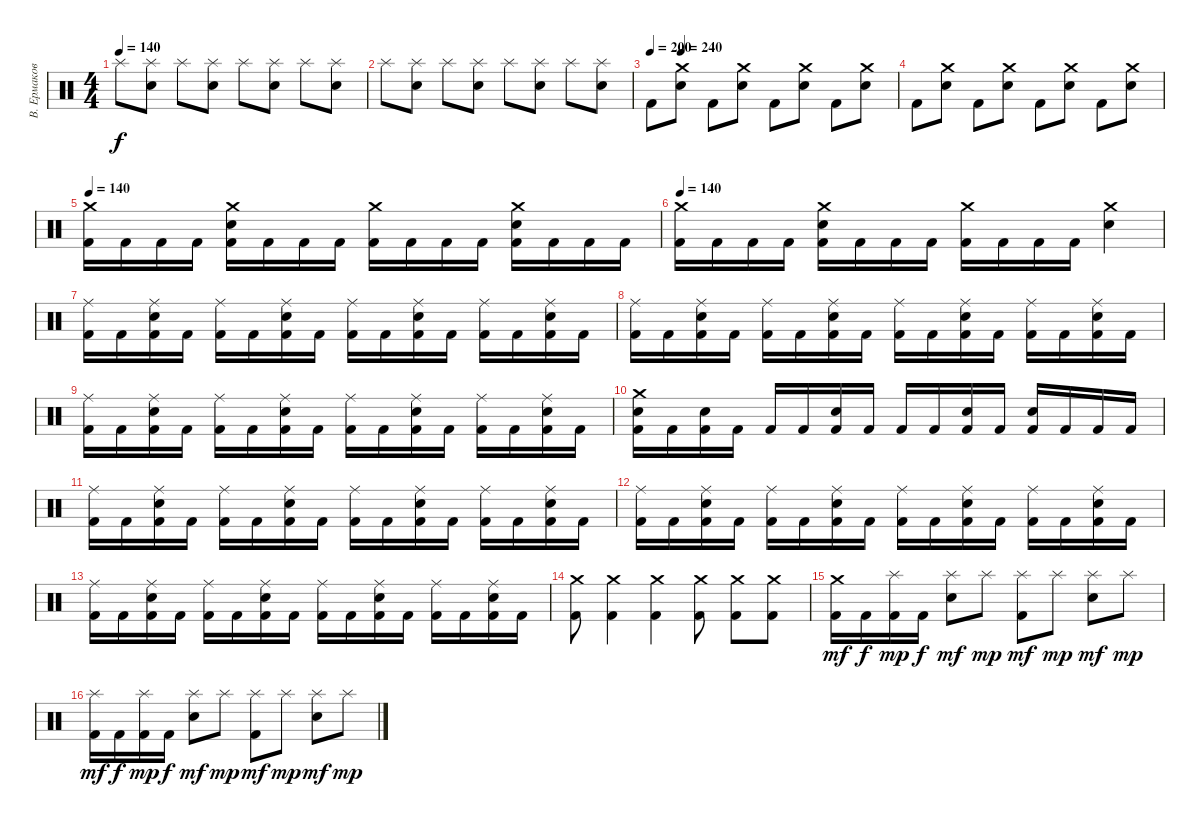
\track ("В. Ермаков" "В. Ермаков") {instrument percussion}
\staff {score}
\articulation defaults
\ts (4 4)
\tempo 140
\clef neutral
\ks c "Splash (hit)".8{dy f}
("Electric Snare (hit)" "Splash (hit)").8 "Splash (hit)".8 ("Electric Snare (hit)" "Splash (hit)").8 "Splash (hit)".8 ("Electric Snare (hit)" "Splash (hit)").8 "Splash (hit)".8 ("Electric Snare (hit)" "Splash (hit)").8 |
"Splash (hit)".8 ("Electric Snare (hit)" "Splash (hit)").8 "Splash (hit)".8 ("Electric Snare (hit)" "Splash (hit)").8 "Splash (hit)".8 ("Electric Snare (hit)" "Splash (hit)").8 "Splash (hit)".8 ("Electric Snare (hit)" "Splash (hit)").8 |
\tempo 200
\tempo (240 0.125)
"Kick (hit) 2".8 ("Crash medium (hit)" "Electric Snare (hit)").8 "Kick (hit) 2".8 ("Crash medium (hit)" "Electric Snare (hit)").8 "Kick (hit) 2".8 ("Crash medium (hit)" "Electric Snare (hit)").8 "Kick (hit) 2".8 ("Crash medium (hit)" "Electric Snare (hit)").8 |
"Kick (hit) 2".8 ("Crash medium (hit)" "Electric Snare (hit)").8 "Kick (hit) 2".8 ("Crash medium (hit)" "Electric Snare (hit)").8 "Kick (hit) 2".8 ("Crash medium (hit)" "Electric Snare (hit)").8 "Kick (hit) 2".8 ("Crash medium (hit)" "Electric Snare (hit)").8 |
\tempo 140
("Kick (hit) 2" "Crash medium (hit)").16 "Kick (hit) 2".16 "Kick (hit) 2".16 "Kick (hit) 2".16 ("Kick (hit) 2" "Electric Snare (hit)" "Crash medium (hit)").16 "Kick (hit) 2".16 "Kick (hit) 2".16 "Kick (hit) 2".16 ("Kick (hit) 2" "Crash medium (hit)").16 "Kick (hit) 2".16 "Kick (hit) 2".16 "Kick (hit) 2".16 ("Kick (hit) 2" "Electric Snare (hit)" "Crash medium (hit)").16 "Kick (hit) 2".16 "Kick (hit) 2".16 "Kick (hit) 2".16 |
\tempo 140
("Kick (hit) 2" "Crash medium (hit)").16 "Kick (hit) 2".16 "Kick (hit) 2".16 "Kick (hit) 2".16 ("Kick (hit) 2" "Electric Snare (hit)" "Crash medium (hit)").16 "Kick (hit) 2".16 "Kick (hit) 2".16 "Kick (hit) 2".16 ("Kick (hit) 2" "Crash medium (hit)").16 "Kick (hit) 2".16 "Kick (hit) 2".16 "Kick (hit) 2".16 ("Electric Snare (hit)" "Crash medium (hit)").4 |
("Kick (hit) 2" "Ride (middle)").16 "Kick (hit) 2".16 ("Kick (hit) 2" "Electric Snare (hit)" "Ride (middle)").16 "Kick (hit) 2".16 ("Kick (hit) 2" "Ride (middle)").16 "Kick (hit) 2".16 ("Kick (hit) 2" "Electric Snare (hit)" "Ride (middle)").16 "Kick (hit) 2".16 ("Kick (hit) 2" "Ride (middle)").16 "Kick (hit) 2".16 ("Kick (hit) 2" "Electric Snare (hit)" "Ride (middle)").16 "Kick (hit) 2".16 ("Kick (hit) 2" "Ride (middle)").16 "Kick (hit) 2".16 ("Kick (hit) 2" "Electric Snare (hit)" "Ride (middle)").16 "Kick (hit) 2".16 |
("Kick (hit) 2" "Ride (middle)").16 "Kick (hit) 2".16 ("Kick (hit) 2" "Electric Snare (hit)" "Ride (middle)").16 "Kick (hit) 2".16 ("Kick (hit) 2" "Ride (middle)").16 "Kick (hit) 2".16 ("Kick (hit) 2" "Electric Snare (hit)" "Ride (middle)").16 "Kick (hit) 2".16 ("Kick (hit) 2" "Ride (middle)").16 "Kick (hit) 2".16 ("Kick (hit) 2" "Electric Snare (hit)" "Ride (middle)").16 "Kick (hit) 2".16 ("Kick (hit) 2" "Ride (middle)").16 "Kick (hit) 2".16 ("Kick (hit) 2" "Electric Snare (hit)" "Ride (middle)").16 "Kick (hit) 2".16 |
("Kick (hit) 2" "Ride (middle)").16 "Kick (hit) 2".16 ("Kick (hit) 2" "Electric Snare (hit)" "Ride (middle)").16 "Kick (hit) 2".16 ("Kick (hit) 2" "Ride (middle)").16 "Kick (hit) 2".16 ("Kick (hit) 2" "Electric Snare (hit)" "Ride (middle)").16 "Kick (hit) 2".16 ("Kick (hit) 2" "Ride (middle)").16 "Kick (hit) 2".16 ("Kick (hit) 2" "Electric Snare (hit)" "Ride (middle)").16 "Kick (hit) 2".16 ("Kick (hit) 2" "Ride (middle)").16 "Kick (hit) 2".16 ("Kick (hit) 2" "Electric Snare (hit)" "Ride (middle)").16 "Kick (hit) 2".16 |
("Kick (hit) 2" "Electric Snare (hit)" "Crash medium (hit)").16 "Kick (hit) 2".16 ("Kick (hit) 2" "Electric Snare (hit)").16 "Kick (hit) 2".16 "Kick (hit) 2".16 "Kick (hit) 2".16 ("Kick (hit) 2" "Electric Snare (hit)").16 "Kick (hit) 2".16 "Kick (hit) 2".16 "Kick (hit) 2".16 ("Kick (hit) 2" "Electric Snare (hit)").16 "Kick (hit) 2".16 ("Kick (hit) 2" "Electric Snare (hit)").16 "Kick (hit) 2".16 "Kick (hit) 2".16 "Kick (hit) 2".16 |
("Kick (hit) 2" "Ride (middle)").16 "Kick (hit) 2".16 ("Kick (hit) 2" "Electric Snare (hit)" "Ride (middle)").16 "Kick (hit) 2".16 ("Kick (hit) 2" "Ride (middle)").16 "Kick (hit) 2".16 ("Kick (hit) 2" "Electric Snare (hit)" "Ride (middle)").16 "Kick (hit) 2".16 ("Kick (hit) 2" "Ride (middle)").16 "Kick (hit) 2".16 ("Kick (hit) 2" "Electric Snare (hit)" "Ride (middle)").16 "Kick (hit) 2".16 ("Kick (hit) 2" "Ride (middle)").16 "Kick (hit) 2".16 ("Kick (hit) 2" "Electric Snare (hit)" "Ride (middle)").16 "Kick (hit) 2".16 |
("Kick (hit) 2" "Ride (middle)").16 "Kick (hit) 2".16 ("Kick (hit) 2" "Electric Snare (hit)" "Ride (middle)").16 "Kick (hit) 2".16 ("Kick (hit) 2" "Ride (middle)").16 "Kick (hit) 2".16 ("Kick (hit) 2" "Electric Snare (hit)" "Ride (middle)").16 "Kick (hit) 2".16 ("Kick (hit) 2" "Ride (middle)").16 "Kick (hit) 2".16 ("Kick (hit) 2" "Electric Snare (hit)" "Ride (middle)").16 "Kick (hit) 2".16 ("Kick (hit) 2" "Ride (middle)").16 "Kick (hit) 2".16 ("Kick (hit) 2" "Electric Snare (hit)" "Ride (middle)").16 "Kick (hit) 2".16 |
("Kick (hit) 2" "Ride (middle)").16 "Kick (hit) 2".16 ("Kick (hit) 2" "Electric Snare (hit)" "Ride (middle)").16 "Kick (hit) 2".16 ("Kick (hit) 2" "Ride (middle)").16 "Kick (hit) 2".16 ("Kick (hit) 2" "Electric Snare (hit)" "Ride (middle)").16 "Kick (hit) 2".16 ("Kick (hit) 2" "Ride (middle)").16 "Kick (hit) 2".16 ("Kick (hit) 2" "Electric Snare (hit)" "Ride (middle)").16 "Kick (hit) 2".16 ("Kick (hit) 2" "Ride (middle)").16 "Kick (hit) 2".16 ("Kick (hit) 2" "Electric Snare (hit)" "Ride (middle)").16 "Kick (hit) 2".16 |
("Crash medium (hit)" "Kick (hit) 2").8 ("Crash medium (hit)" "Kick (hit) 2").4 ("Crash medium (hit)" "Kick (hit) 2").4 ("Crash medium (hit)" "Kick (hit) 2").8 ("Crash medium (hit)" "Kick (hit) 2").8 ("Crash medium (hit)" "Kick (hit) 2").8 |
("Kick (hit) 2" "Crash medium (hit)").16{dy mf} "Kick (hit) 2".16{dy f} ("Kick (hit) 2" "Splash (hit)").16{dy mp} "Kick (hit) 2".16{dy f} ("Electric Snare (hit)" "Splash (hit)").8{dy mf} "Splash (hit)".8{dy mp} ("Kick (hit) 2" "Splash (hit)").8{dy mf} "Splash (hit)".8{dy mp} ("Electric Snare (hit)" "Splash (hit)").8{dy mf} "Splash (hit)".8{dy mp} |
("Kick (hit) 2" "Splash (hit)").16{dy mf} "Kick (hit) 2".16{dy f} ("Kick (hit) 2" "Splash (hit)").16{dy mp} "Kick (hit) 2".16{dy f} ("Electric Snare (hit)" "Splash (hit)").8{dy mf} "Splash (hit)".8{dy mp} ("Kick (hit) 2" "Splash (hit)").8{dy mf} "Splash (hit)".8{dy mp} ("Electric Snare (hit)" "Splash (hit)").8{dy mf} "Splash (hit)".8{dy mp}
